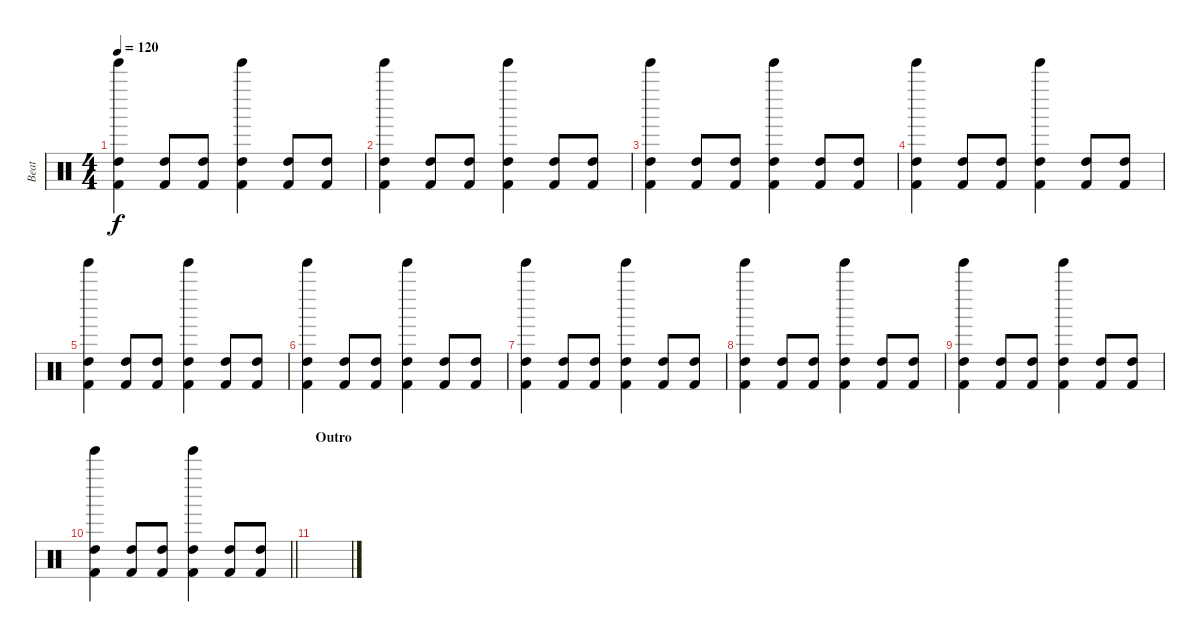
\track ("Beat" "Beat") {instrument percussion}
\staff {score}
\articulation defaults
\ts (4 4)
\tempo 120
\clef neutral
\ks c
("High Tom (hit)" "Kick (hit) 2" "Tinkle Bell (hit)").4{dy f} ("High Tom (hit)" "Kick (hit) 2").8 ("High Tom (hit)" "Kick (hit) 2").8 ("High Tom (hit)" "Kick (hit) 2" "Tinkle Bell (hit)").4 ("High Tom (hit)" "Kick (hit) 2").8 ("High Tom (hit)" "Kick (hit) 2").8 |
("High Tom (hit)" "Kick (hit) 2" "Tinkle Bell (hit)").4 ("High Tom (hit)" "Kick (hit) 2").8 ("High Tom (hit)" "Kick (hit) 2").8 ("High Tom (hit)" "Kick (hit) 2" "Tinkle Bell (hit)").4 ("High Tom (hit)" "Kick (hit) 2").8 ("High Tom (hit)" "Kick (hit) 2").8 |
("High Tom (hit)" "Kick (hit) 2" "Tinkle Bell (hit)").4 ("High Tom (hit)" "Kick (hit) 2").8 ("High Tom (hit)" "Kick (hit) 2").8 ("High Tom (hit)" "Kick (hit) 2" "Tinkle Bell (hit)").4 ("High Tom (hit)" "Kick (hit) 2").8 ("High Tom (hit)" "Kick (hit) 2").8 |
("High Tom (hit)" "Kick (hit) 2" "Tinkle Bell (hit)").4 ("High Tom (hit)" "Kick (hit) 2").8 ("High Tom (hit)" "Kick (hit) 2").8 ("High Tom (hit)" "Kick (hit) 2" "Tinkle Bell (hit)").4 ("High Tom (hit)" "Kick (hit) 2").8 ("High Tom (hit)" "Kick (hit) 2").8 |
("High Tom (hit)" "Kick (hit) 2" "Tinkle Bell (hit)").4 ("High Tom (hit)" "Kick (hit) 2").8 ("High Tom (hit)" "Kick (hit) 2").8 ("High Tom (hit)" "Kick (hit) 2" "Tinkle Bell (hit)").4 ("High Tom (hit)" "Kick (hit) 2").8 ("High Tom (hit)" "Kick (hit) 2").8 |
("High Tom (hit)" "Kick (hit) 2" "Tinkle Bell (hit)").4 ("High Tom (hit)" "Kick (hit) 2").8 ("High Tom (hit)" "Kick (hit) 2").8 ("High Tom (hit)" "Kick (hit) 2" "Tinkle Bell (hit)").4 ("High Tom (hit)" "Kick (hit) 2").8 ("High Tom (hit)" "Kick (hit) 2").8 |
("High Tom (hit)" "Kick (hit) 2" "Tinkle Bell (hit)").4 ("High Tom (hit)" "Kick (hit) 2").8 ("High Tom (hit)" "Kick (hit) 2").8 ("High Tom (hit)" "Kick (hit) 2" "Tinkle Bell (hit)").4 ("High Tom (hit)" "Kick (hit) 2").8 ("High Tom (hit)" "Kick (hit) 2").8 |
("High Tom (hit)" "Kick (hit) 2" "Tinkle Bell (hit)").4 ("High Tom (hit)" "Kick (hit) 2").8 ("High Tom (hit)" "Kick (hit) 2").8 ("High Tom (hit)" "Kick (hit) 2" "Tinkle Bell (hit)").4 ("High Tom (hit)" "Kick (hit) 2").8 ("High Tom (hit)" "Kick (hit) 2").8 |
("High Tom (hit)" "Kick (hit) 2" "Tinkle Bell (hit)").4 ("High Tom (hit)" "Kick (hit) 2").8 ("High Tom (hit)" "Kick (hit) 2").8 ("High Tom (hit)" "Kick (hit) 2" "Tinkle Bell (hit)").4 ("High Tom (hit)" "Kick (hit) 2").8 ("High Tom (hit)" "Kick (hit) 2").8 |
\barLineRight lightlight
("High Tom (hit)" "Kick (hit) 2" "Tinkle Bell (hit)").4 ("High Tom (hit)" "Kick (hit) 2").8 ("High Tom (hit)" "Kick (hit) 2").8 ("High Tom (hit)" "Kick (hit) 2" "Tinkle Bell (hit)").4 ("High Tom (hit)" "Kick (hit) 2").8 ("High Tom (hit)" "Kick (hit) 2").8 |
\section ("" "Outro")
